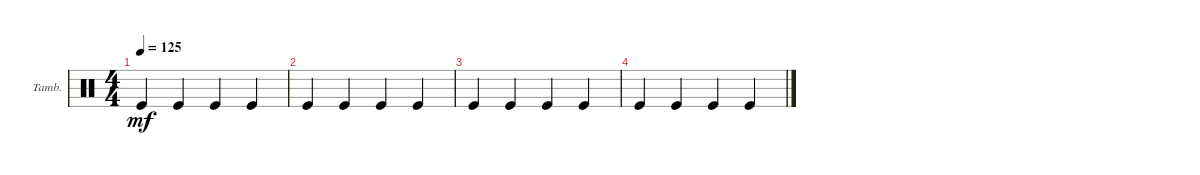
\defaultSystemsLayout 4
\bracketExtendMode groupsimilarinstruments
\firstSystemTrackNameOrientation horizontal
\otherSystemsTrackNameOrientation horizontal
\track ("Tambourine" "Tamb.") {instrument percussion}
\staff {score}
\articulation defaults
\ts (4 4)
\tempo 125
\clef neutral
\ks c "Kick (hit)".4{dy mf} "Kick (hit)".4 "Kick (hit)".4 "Kick (hit)".4
|
"Kick (hit)".4 "Kick (hit)".4 "Kick (hit)".4 "Kick (hit)".4 |
"Kick (hit)".4 "Kick (hit)".4 "Kick (hit)".4 "Kick (hit)".4 |
"Kick (hit)".4 "Kick (hit)".4 "Kick (hit)".4 "Kick (hit)".4
